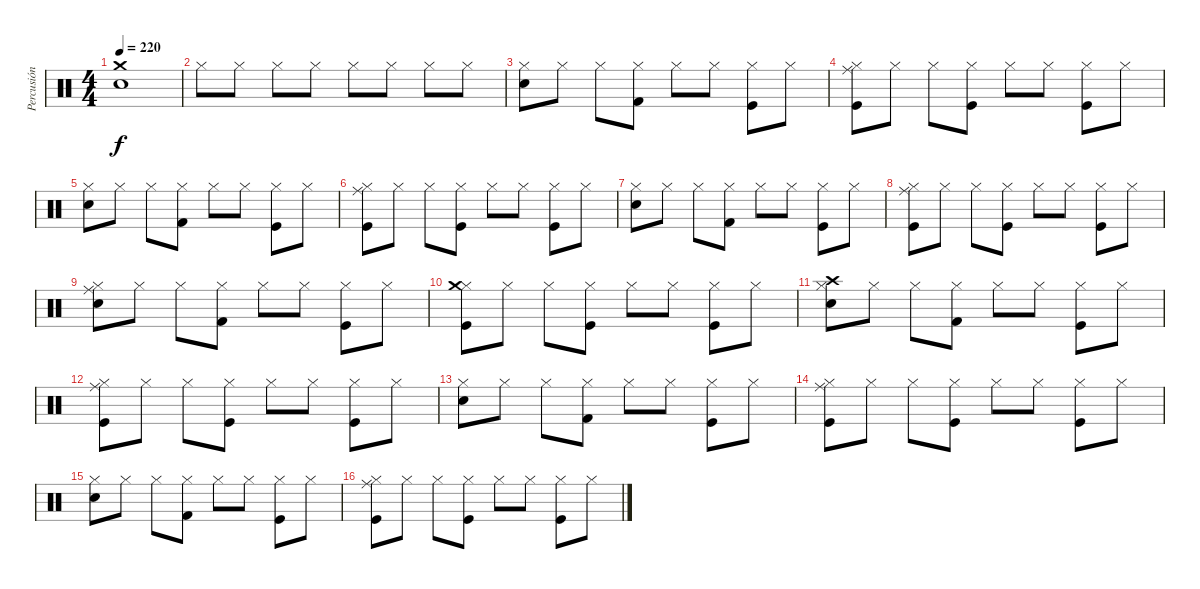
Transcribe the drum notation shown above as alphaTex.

\track ("Percusión" "Percusión") {instrument percussion}
\staff {score}
\articulation defaults
\ts (4 4)
\tempo 220
\clef neutral
\ks c
("Snare (hit) 2" "Crash medium (hit)").1{dy f} |
"Hi-Hat (closed)".8 "Hi-Hat (closed)".8 "Hi-Hat (closed)".8 "Hi-Hat (closed)".8 "Hi-Hat (closed)".8 "Hi-Hat (closed)".8 "Hi-Hat (closed)".8 "Hi-Hat (closed)".8 |
("Hi-Hat (closed)" "Snare (hit) 2").8 "Hi-Hat (closed)".8 "Hi-Hat (closed)".8 ("Hi-Hat (closed)" "Kick (hit) 2").8 "Hi-Hat (closed)".8 "Hi-Hat (closed)".8 ("Hi-Hat (closed)" "Kick (hit)").8 "Hi-Hat (closed)".8 |
("Hi-Hat (closed)" "Ride (middle)" "Kick (hit)").8 "Hi-Hat (closed)".8 "Hi-Hat (closed)".8 ("Hi-Hat (closed)" "Kick (hit)").8 "Hi-Hat (closed)".8 "Hi-Hat (closed)".8 ("Hi-Hat (closed)" "Kick (hit)").8 "Hi-Hat (closed)".8 |
("Hi-Hat (closed)" "Snare (hit) 2").8 "Hi-Hat (closed)".8 "Hi-Hat (closed)".8 ("Hi-Hat (closed)" "Kick (hit) 2").8 "Hi-Hat (closed)".8 "Hi-Hat (closed)".8 ("Hi-Hat (closed)" "Kick (hit)").8 "Hi-Hat (closed)".8 |
("Hi-Hat (closed)" "Ride (middle)" "Kick (hit)").8 "Hi-Hat (closed)".8 "Hi-Hat (closed)".8 ("Hi-Hat (closed)" "Kick (hit)").8 "Hi-Hat (closed)".8 "Hi-Hat (closed)".8 ("Hi-Hat (closed)" "Kick (hit)").8 "Hi-Hat (closed)".8 |
("Hi-Hat (closed)" "Snare (hit) 2").8 "Hi-Hat (closed)".8 "Hi-Hat (closed)".8 ("Hi-Hat (closed)" "Kick (hit) 2").8 "Hi-Hat (closed)".8 "Hi-Hat (closed)".8 ("Hi-Hat (closed)" "Kick (hit)").8 "Hi-Hat (closed)".8 |
("Hi-Hat (closed)" "Ride (middle)" "Kick (hit)").8 "Hi-Hat (closed)".8 "Hi-Hat (closed)".8 ("Hi-Hat (closed)" "Kick (hit)").8 "Hi-Hat (closed)".8 "Hi-Hat (closed)".8 ("Hi-Hat (closed)" "Kick (hit)").8 "Hi-Hat (closed)".8 |
("Hi-Hat (closed)" "Ride (middle)" "Snare (hit) 2").8 "Hi-Hat (closed)".8 "Hi-Hat (closed)".8 ("Hi-Hat (closed)" "Kick (hit) 2").8 "Hi-Hat (closed)".8 "Hi-Hat (closed)".8 ("Hi-Hat (closed)" "Kick (hit)").8 "Hi-Hat (closed)".8 |
("Hi-Hat (closed)" "Crash medium (hit)" "Kick (hit)").8 "Hi-Hat (closed)".8 "Hi-Hat (closed)".8 ("Hi-Hat (closed)" "Kick (hit)").8 "Hi-Hat (closed)".8 "Hi-Hat (closed)".8 ("Hi-Hat (closed)" "Kick (hit)").8 "Hi-Hat (closed)".8 |
("Hi-Hat (closed)" "Crash high (hit)" "Snare (hit) 2").8 "Hi-Hat (closed)".8 "Hi-Hat (closed)".8 ("Hi-Hat (closed)" "Kick (hit) 2").8 "Hi-Hat (closed)".8 "Hi-Hat (closed)".8 ("Hi-Hat (closed)" "Kick (hit)").8 "Hi-Hat (closed)".8 |
("Hi-Hat (closed)" "Ride (middle)" "Kick (hit)").8 "Hi-Hat (closed)".8 "Hi-Hat (closed)".8 ("Hi-Hat (closed)" "Kick (hit)").8 "Hi-Hat (closed)".8 "Hi-Hat (closed)".8 ("Hi-Hat (closed)" "Kick (hit)").8 "Hi-Hat (closed)".8 |
("Hi-Hat (closed)" "Snare (hit) 2").8 "Hi-Hat (closed)".8 "Hi-Hat (closed)".8 ("Hi-Hat (closed)" "Kick (hit) 2").8 "Hi-Hat (closed)".8 "Hi-Hat (closed)".8 ("Hi-Hat (closed)" "Kick (hit)").8 "Hi-Hat (closed)".8 |
("Hi-Hat (closed)" "Ride (middle)" "Kick (hit)").8 "Hi-Hat (closed)".8 "Hi-Hat (closed)".8 ("Hi-Hat (closed)" "Kick (hit)").8 "Hi-Hat (closed)".8 "Hi-Hat (closed)".8 ("Hi-Hat (closed)" "Kick (hit)").8 "Hi-Hat (closed)".8 |
("Hi-Hat (closed)" "Snare (hit) 2").8 "Hi-Hat (closed)".8 "Hi-Hat (closed)".8 ("Hi-Hat (closed)" "Kick (hit) 2").8 "Hi-Hat (closed)".8 "Hi-Hat (closed)".8 ("Hi-Hat (closed)" "Kick (hit)").8 "Hi-Hat (closed)".8 |
("Hi-Hat (closed)" "Ride (middle)" "Kick (hit)").8 "Hi-Hat (closed)".8 "Hi-Hat (closed)".8 ("Hi-Hat (closed)" "Kick (hit)").8 "Hi-Hat (closed)".8 "Hi-Hat (closed)".8 ("Hi-Hat (closed)" "Kick (hit)").8 "Hi-Hat (closed)".8
